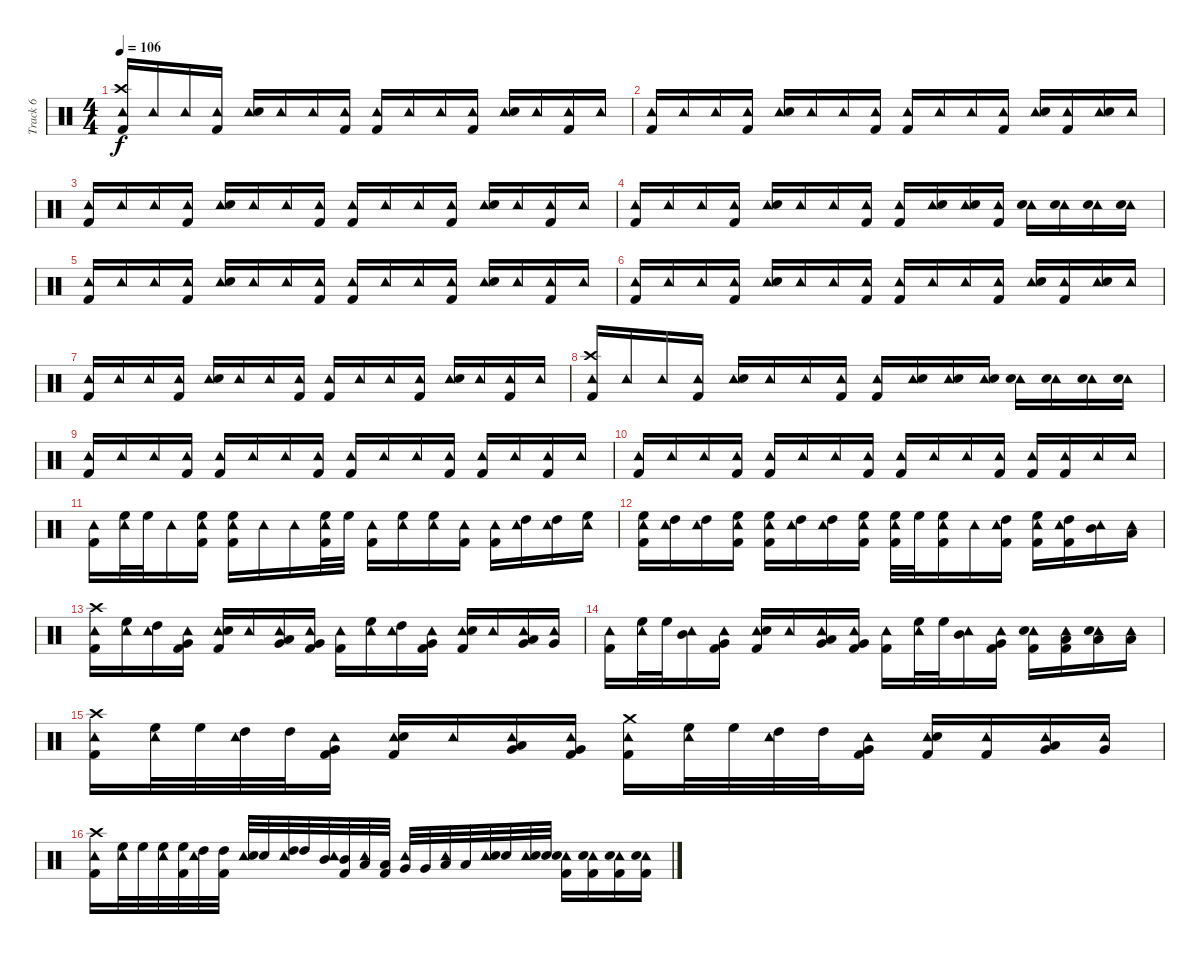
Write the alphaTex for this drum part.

\track ("Track 6" "Track 6") {instrument percussion}
\staff {score}
\articulation defaults
\ts (4 4)
\tempo 106
\clef neutral
\ks c
("Tambourine (hit)" "Crash high (hit)" "Kick (hit) 2").16{dy f} "Tambourine (hit)".16 "Tambourine (hit)".16 ("Tambourine (hit)" "Kick (hit) 2").16 ("Tambourine (hit)" "Snare (hit) 2").16 "Tambourine (hit)".16 "Tambourine (hit)".16 ("Tambourine (hit)" "Kick (hit) 2").16 ("Tambourine (hit)" "Kick (hit) 2").16 "Tambourine (hit)".16 "Tambourine (hit)".16 ("Tambourine (hit)" "Kick (hit) 2").16 ("Tambourine (hit)" "Snare (hit) 2").16 "Tambourine (hit)".16 ("Tambourine (hit)" "Kick (hit) 2").16 "Tambourine (hit)".16 |
("Tambourine (hit)" "Kick (hit) 2").16 "Tambourine (hit)".16 "Tambourine (hit)".16 ("Tambourine (hit)" "Kick (hit) 2").16 ("Tambourine (hit)" "Snare (hit) 2").16 "Tambourine (hit)".16 "Tambourine (hit)".16 ("Tambourine (hit)" "Kick (hit) 2").16 ("Tambourine (hit)" "Kick (hit) 2").16 "Tambourine (hit)".16 "Tambourine (hit)".16 ("Tambourine (hit)" "Kick (hit) 2").16 ("Tambourine (hit)" "Snare (hit) 2").16 ("Tambourine (hit)" "Kick (hit) 2").16 ("Tambourine (hit)" "Snare (hit) 2").16 "Tambourine (hit)".16 |
("Tambourine (hit)" "Kick (hit) 2").16 "Tambourine (hit)".16 "Tambourine (hit)".16 ("Tambourine (hit)" "Kick (hit) 2").16 ("Tambourine (hit)" "Snare (hit) 2").16 "Tambourine (hit)".16 "Tambourine (hit)".16 ("Tambourine (hit)" "Kick (hit) 2").16 ("Tambourine (hit)" "Kick (hit) 2").16 "Tambourine (hit)".16 "Tambourine (hit)".16 ("Tambourine (hit)" "Kick (hit) 2").16 ("Tambourine (hit)" "Snare (hit) 2").16 "Tambourine (hit)".16 ("Tambourine (hit)" "Kick (hit) 2").16 "Tambourine (hit)".16 |
("Tambourine (hit)" "Kick (hit) 2").16 "Tambourine (hit)".16 "Tambourine (hit)".16 ("Tambourine (hit)" "Kick (hit) 2").16 ("Tambourine (hit)" "Snare (hit) 2").16 "Tambourine (hit)".16 "Tambourine (hit)".16 ("Tambourine (hit)" "Kick (hit) 2").16 ("Tambourine (hit)" "Kick (hit) 2").16 ("Tambourine (hit)" "Snare (hit) 2").16 ("Tambourine (hit)" "Snare (hit) 2").16 ("Tambourine (hit)" "Kick (hit) 2").16 ("Tambourine (hit)" "Snare (hit) 2").16 ("Tambourine (hit)" "Snare (hit) 2").16 ("Tambourine (hit)" "Snare (hit) 2").16 ("Tambourine (hit)" "Snare (hit) 2").16 |
("Tambourine (hit)" "Kick (hit) 2").16 "Tambourine (hit)".16 "Tambourine (hit)".16 ("Tambourine (hit)" "Kick (hit) 2").16 ("Tambourine (hit)" "Snare (hit) 2").16 "Tambourine (hit)".16 "Tambourine (hit)".16 ("Tambourine (hit)" "Kick (hit) 2").16 ("Tambourine (hit)" "Kick (hit) 2").16 "Tambourine (hit)".16 "Tambourine (hit)".16 ("Tambourine (hit)" "Kick (hit) 2").16 ("Tambourine (hit)" "Snare (hit) 2").16 "Tambourine (hit)".16 ("Tambourine (hit)" "Kick (hit) 2").16 "Tambourine (hit)".16 |
("Tambourine (hit)" "Kick (hit) 2").16 "Tambourine (hit)".16 "Tambourine (hit)".16 ("Tambourine (hit)" "Kick (hit) 2").16 ("Tambourine (hit)" "Snare (hit) 2").16 "Tambourine (hit)".16 "Tambourine (hit)".16 ("Tambourine (hit)" "Kick (hit) 2").16 ("Tambourine (hit)" "Kick (hit) 2").16 "Tambourine (hit)".16 "Tambourine (hit)".16 ("Tambourine (hit)" "Kick (hit) 2").16 ("Tambourine (hit)" "Snare (hit) 2").16 ("Tambourine (hit)" "Kick (hit) 2").16 ("Tambourine (hit)" "Snare (hit) 2").16 "Tambourine (hit)".16 |
("Tambourine (hit)" "Kick (hit) 2").16 "Tambourine (hit)".16 "Tambourine (hit)".16 ("Tambourine (hit)" "Kick (hit) 2").16 ("Tambourine (hit)" "Snare (hit) 2").16 "Tambourine (hit)".16 "Tambourine (hit)".16 ("Tambourine (hit)" "Kick (hit) 2").16 ("Tambourine (hit)" "Kick (hit) 2").16 "Tambourine (hit)".16 "Tambourine (hit)".16 ("Tambourine (hit)" "Kick (hit) 2").16 ("Tambourine (hit)" "Snare (hit) 2").16 "Tambourine (hit)".16 ("Tambourine (hit)" "Kick (hit) 2").16 "Tambourine (hit)".16 |
("Tambourine (hit)" "Crash high (hit)" "Kick (hit) 2").16 "Tambourine (hit)".16 "Tambourine (hit)".16 ("Tambourine (hit)" "Kick (hit) 2").16 ("Tambourine (hit)" "Snare (hit) 2").16 "Tambourine (hit)".16 "Tambourine (hit)".16 ("Tambourine (hit)" "Kick (hit) 2").16 ("Tambourine (hit)" "Kick (hit) 2").16 ("Tambourine (hit)" "Snare (hit) 2").16 ("Tambourine (hit)" "Snare (hit) 2").16 ("Tambourine (hit)" "Snare (hit) 2").16 ("Tambourine (hit)" "Snare (hit) 2").16 ("Tambourine (hit)" "Snare (hit) 2").16 ("Tambourine (hit)" "Snare (hit) 2").16 ("Tambourine (hit)" "Snare (hit) 2").16 |
("Tambourine (hit)" "Kick (hit) 2").16 "Tambourine (hit)".16 "Tambourine (hit)".16 ("Tambourine (hit)" "Kick (hit) 2").16 ("Tambourine (hit)" "Kick (hit) 2").16 "Tambourine (hit)".16 "Tambourine (hit)".16 ("Tambourine (hit)" "Kick (hit) 2").16 ("Tambourine (hit)" "Kick (hit) 2").16 "Tambourine (hit)".16 "Tambourine (hit)".16 ("Tambourine (hit)" "Kick (hit) 2").16 ("Tambourine (hit)" "Kick (hit) 2").16 "Tambourine (hit)".16 ("Tambourine (hit)" "Kick (hit) 2").16 "Tambourine (hit)".16 |
("Tambourine (hit)" "Kick (hit) 2").16 "Tambourine (hit)".16 "Tambourine (hit)".16 ("Tambourine (hit)" "Kick (hit) 2").16 ("Tambourine (hit)" "Kick (hit) 2").16 "Tambourine (hit)".16 "Tambourine (hit)".16 ("Tambourine (hit)" "Kick (hit) 2").16 ("Tambourine (hit)" "Kick (hit) 2").16 "Tambourine (hit)".16 "Tambourine (hit)".16 ("Tambourine (hit)" "Kick (hit) 2").16 ("Tambourine (hit)" "Kick (hit) 2").16 ("Tambourine (hit)" "Kick (hit) 2").16 "Tambourine (hit)".16 "Tambourine (hit)".16 |
("Tambourine (hit)" "Kick (hit) 2").16 ("Tambourine (hit)" "High Floor Tom (hit)").32 "High Floor Tom (hit)".32 "Tambourine (hit)".16 ("Tambourine (hit)" "High Floor Tom (hit)" "Kick (hit) 2").16 ("Tambourine (hit)" "High Floor Tom (hit)" "Kick (hit) 2").16 "Tambourine (hit)".16 "Tambourine (hit)".16 ("Tambourine (hit)" "High Floor Tom (hit)" "Kick (hit) 2").32 "High Floor Tom (hit)".32 ("Tambourine (hit)" "Kick (hit) 2").16 ("Tambourine (hit)" "High Floor Tom (hit)").16 ("Tambourine (hit)" "High Floor Tom (hit)").16 ("Tambourine (hit)" "Kick (hit) 2").16 ("Tambourine (hit)" "Kick (hit) 2").16 ("Tambourine (hit)" "High Tom (hit)").16 ("Tambourine (hit)" "High Tom (hit)").16 ("Tambourine (hit)" "High Floor Tom (hit)").16 |
("Tambourine (hit)" "High Floor Tom (hit)" "Kick (hit) 2").16 ("Tambourine (hit)" "High Tom (hit)").16 ("Tambourine (hit)" "High Tom (hit)").16 ("Tambourine (hit)" "High Floor Tom (hit)" "Kick (hit) 2").16 ("Tambourine (hit)" "High Floor Tom (hit)" "Kick (hit) 2").16 ("Tambourine (hit)" "High Tom (hit)").16 ("Tambourine (hit)" "High Tom (hit)").16 ("Tambourine (hit)" "High Floor Tom (hit)" "Kick (hit) 2").16 ("Tambourine (hit)" "High Floor Tom (hit)" "Kick (hit) 2").32 "High Floor Tom (hit)".32 ("Tambourine (hit)" "High Floor Tom (hit)" "Kick (hit) 2").16 "Tambourine (hit)".16 ("Tambourine (hit)" "High Tom (hit)" "Kick (hit) 2").16 ("Tambourine (hit)" "High Floor Tom (hit)" "Kick (hit) 2").16 ("Tambourine (hit)" "High Tom (hit)" "Kick (hit) 2").16 ("Tambourine (hit)" "Mid Tom (hit)").16 ("Tambourine (hit)" "Low Tom (hit)").16 |
("Tambourine (hit)" "Crash high (hit)" "Kick (hit) 2").16 ("Tambourine (hit)" "High Floor Tom (hit)").16 ("Tambourine (hit)" "High Tom (hit)").16 ("Tambourine (hit)" "Very Low Tom (hit)" "Kick (hit) 2").16 ("Tambourine (hit)" "Snare (hit) 2" "Kick (hit) 2").16 "Tambourine (hit)".16 ("Tambourine (hit)" "Very Low Tom (hit)" "Low Floor Tom (hit)").16 ("Tambourine (hit)" "Very Low Tom (hit)" "Kick (hit) 2").16 ("Tambourine (hit)" "Kick (hit) 2").16 ("Tambourine (hit)" "High Floor Tom (hit)").16 ("Tambourine (hit)" "High Tom (hit)").16 ("Tambourine (hit)" "Very Low Tom (hit)" "Kick (hit) 2").16 ("Tambourine (hit)" "Snare (hit) 2" "Kick (hit) 2").16 "Tambourine (hit)".16 ("Tambourine (hit)" "Very Low Tom (hit)" "Low Floor Tom (hit)").16 ("Tambourine (hit)" "Very Low Tom (hit)").16 |
("Tambourine (hit)" "Kick (hit) 2").16 ("Tambourine (hit)" "High Floor Tom (hit)").32 "High Floor Tom (hit)".32 ("Tambourine (hit)" "Mid Tom (hit)").16 ("Tambourine (hit)" "Very Low Tom (hit)" "Kick (hit) 2").16 ("Tambourine (hit)" "Snare (hit) 2" "Kick (hit) 2").16 "Tambourine (hit)".16 ("Tambourine (hit)" "Very Low Tom (hit)" "Low Floor Tom (hit)").16 ("Tambourine (hit)" "Very Low Tom (hit)" "Kick (hit) 2").16 ("Tambourine (hit)" "Kick (hit) 2").16 ("Tambourine (hit)" "High Floor Tom (hit)").32 "High Floor Tom (hit)".32 ("Tambourine (hit)" "Mid Tom (hit)").16 ("Tambourine (hit)" "Very Low Tom (hit)" "Kick (hit) 2").16 ("Tambourine (hit)" "Snare (hit) 2" "Kick (hit) 2").16 ("Tambourine (hit)" "Low Floor Tom (hit)" "Kick (hit) 2").16 ("Tambourine (hit)" "Low Tom (hit)" "Snare (hit) 2").16 ("Tambourine (hit)" "Low Floor Tom (hit)").16 |
("Tambourine (hit)" "Crash high (hit)" "Kick (hit) 2").16 ("Tambourine (hit)" "High Floor Tom (hit)").32 "High Floor Tom (hit)".32 ("Tambourine (hit)" "High Tom (hit)").32 "High Tom (hit)".32 ("Tambourine (hit)" "Very Low Tom (hit)" "Kick (hit) 2").16 ("Tambourine (hit)" "Snare (hit) 2" "Kick (hit) 2").16 "Tambourine (hit)".16 ("Tambourine (hit)" "Very Low Tom (hit)" "Low Floor Tom (hit)").16 ("Tambourine (hit)" "Very Low Tom (hit)" "Kick (hit) 2").16 ("Tambourine (hit)" "Crash medium (hit)" "Kick (hit) 2").16 ("Tambourine (hit)" "High Floor Tom (hit)").32 "High Floor Tom (hit)".32 ("Tambourine (hit)" "High Tom (hit)").32 "High Tom (hit)".32 ("Tambourine (hit)" "Very Low Tom (hit)" "Kick (hit) 2").16 ("Tambourine (hit)" "Snare (hit) 2" "Kick (hit) 2").16 ("Tambourine (hit)" "Kick (hit) 2").16 ("Tambourine (hit)" "Very Low Tom (hit)" "Low Floor Tom (hit)").16 ("Tambourine (hit)" "Very Low Tom (hit)").16 |
("Tambourine (hit)" "Crash high (hit)" "Kick (hit) 2").16 ("Tambourine (hit)" "High Floor Tom (hit)").32 "High Floor Tom (hit)".32 ("Tambourine (hit)" "High Floor Tom (hit)").32 ("High Floor Tom (hit)" "Kick (hit) 2").32 ("Tambourine (hit)" "High Tom (hit)").32 ("High Tom (hit)" "Kick (hit) 2").32 ("Tambourine (hit)" "Snare (hit) 2").32 "Snare (hit) 2".32 ("Tambourine (hit)" "High Tom (hit)").32 "High Tom (hit)".32 ("Tambourine (hit)" "Mid Tom (hit)").32 ("Mid Tom (hit)" "Kick (hit) 2").32 ("Tambourine (hit)" "Low Tom (hit)").32 ("Low Tom (hit)" "Kick (hit) 2").32 ("Tambourine (hit)" "Very Low Tom (hit)").32 "Very Low Tom (hit)".32 ("Tambourine (hit)" "Low Floor Tom (hit)").32 "Low Floor Tom (hit)".32 ("Tambourine (hit)" "Snare (hit) 2").32 "Snare (hit) 2".32 ("Tambourine (hit)" "Snare (hit) 2").32 "Snare (hit) 2".32 ("Tambourine (hit)" "Snare (hit) 2" "Kick (hit) 2").16 ("Tambourine (hit)" "Snare (hit) 2" "Kick (hit) 2").16 ("Tambourine (hit)" "Snare (hit) 2" "Kick (hit) 2").16 ("Tambourine (hit)" "Snare (hit) 2" "Kick (hit) 2").16
